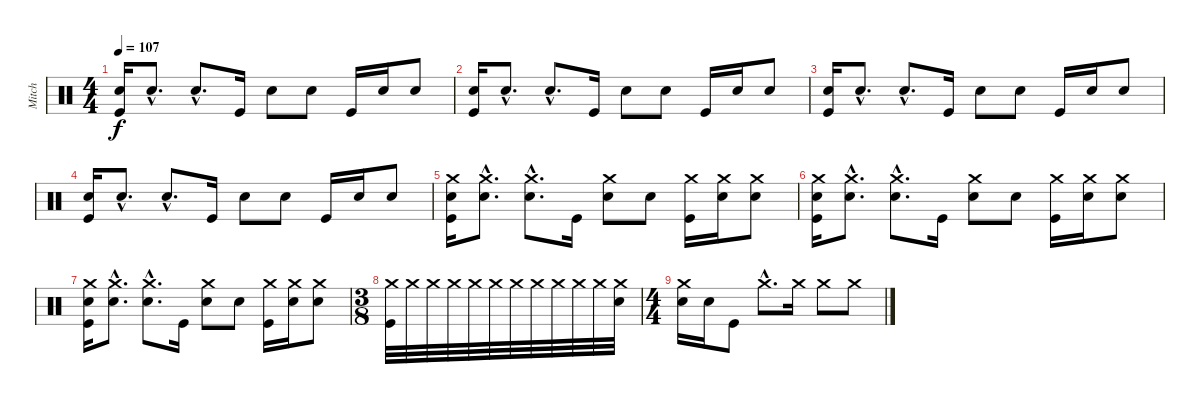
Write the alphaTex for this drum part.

\track ("Mitch" "Mitch") {instrument percussion}
\staff {score}
\articulation defaults
\ts (4 4)
\tempo 107
\clef neutral
\ks c
("Electric Snare (hit)" "Kick (hit)").16{dy f} "Electric Snare (hit)"{hac}.8{d} "Electric Snare (hit)"{hac}.8{d} "Kick (hit)".16 "Electric Snare (hit)".8 "Electric Snare (hit)".8 "Kick (hit)".16 "Electric Snare (hit)".16 "Electric Snare (hit)".8 |
("Electric Snare (hit)" "Kick (hit)").16 "Electric Snare (hit)"{hac}.8{d} "Electric Snare (hit)"{hac}.8{d} "Kick (hit)".16 "Electric Snare (hit)".8 "Electric Snare (hit)".8 "Kick (hit)".16 "Electric Snare (hit)".16 "Electric Snare (hit)".8 |
("Electric Snare (hit)" "Kick (hit)").16 "Electric Snare (hit)"{hac}.8{d} "Electric Snare (hit)"{hac}.8{d} "Kick (hit)".16 "Electric Snare (hit)".8 "Electric Snare (hit)".8 "Kick (hit)".16 "Electric Snare (hit)".16 "Electric Snare (hit)".8 |
("Electric Snare (hit)" "Kick (hit)").16 "Electric Snare (hit)"{hac}.8{d} "Electric Snare (hit)"{hac}.8{d} "Kick (hit)".16 "Electric Snare (hit)".8 "Electric Snare (hit)".8 "Kick (hit)".16 "Electric Snare (hit)".16 "Electric Snare (hit)".8 |
("Crash medium (hit)" "Electric Snare (hit)" "Kick (hit)").16 ("Crash medium (hit)"{hac} "Electric Snare (hit)"{hac}).8{d} ("Crash medium (hit)"{hac} "Electric Snare (hit)"{hac}).8{d} "Kick (hit)".16 ("Crash medium (hit)" "Electric Snare (hit)").8 "Electric Snare (hit)".8 ("Crash medium (hit)" "Kick (hit)").16 ("Crash medium (hit)" "Electric Snare (hit)").16 ("Crash medium (hit)" "Electric Snare (hit)").8 |
("Crash medium (hit)" "Electric Snare (hit)" "Kick (hit)").16 ("Crash medium (hit)"{hac} "Electric Snare (hit)"{hac}).8{d} ("Crash medium (hit)"{hac} "Electric Snare (hit)"{hac}).8{d} "Kick (hit)".16 ("Crash medium (hit)" "Electric Snare (hit)").8 "Electric Snare (hit)".8 ("Crash medium (hit)" "Kick (hit)").16 ("Crash medium (hit)" "Electric Snare (hit)").16 ("Crash medium (hit)" "Electric Snare (hit)").8 |
("Crash medium (hit)" "Electric Snare (hit)" "Kick (hit)").16 ("Crash medium (hit)"{hac} "Electric Snare (hit)"{hac}).8{d} ("Crash medium (hit)"{hac} "Electric Snare (hit)"{hac}).8{d} "Kick (hit)".16 ("Crash medium (hit)" "Electric Snare (hit)").8 "Electric Snare (hit)".8 ("Crash medium (hit)" "Kick (hit)").16 ("Crash medium (hit)" "Electric Snare (hit)").16 ("Crash medium (hit)" "Electric Snare (hit)").8{volume 3} |
\ts (3 8)
("Crash medium (hit)" "Kick (hit)").32{volume 13} "Crash medium (hit)".32 "Crash medium (hit)".32 "Crash medium (hit)".32 "Crash medium (hit)".32 "Crash medium (hit)".32 "Crash medium (hit)".32 "Crash medium (hit)".32 "Crash medium (hit)".32 "Crash medium (hit)".32 "Crash medium (hit)".32 ("Crash medium (hit)" "Electric Snare (hit)").32 |
\ts (4 4)
("Crash medium (hit)" "Electric Snare (hit)").16 "Electric Snare (hit)".16 "Kick (hit)".8 "Crash medium (hit)"{hac}.8{d} "Crash medium (hit)".16 "Crash medium (hit)".8 "Crash medium (hit)".8
